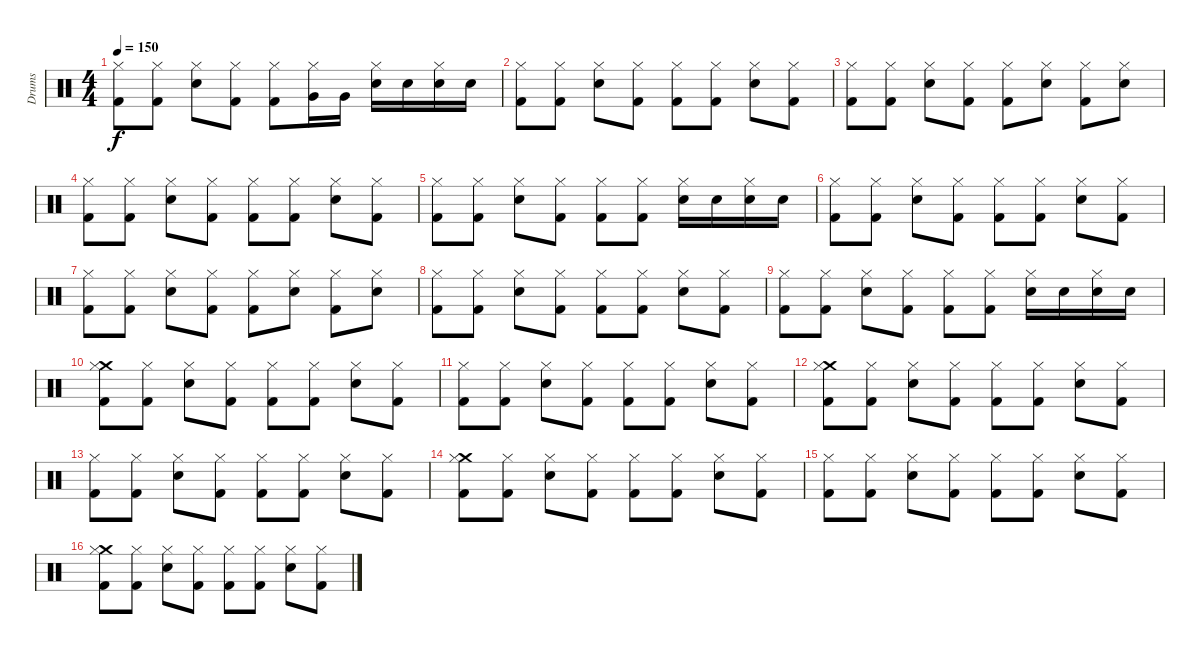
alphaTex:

\track ("Drums" "Drums") {instrument percussion}
\staff {score}
\articulation defaults
\ts (4 4)
\tempo 150
\clef neutral
\ks c
("Hi-Hat (closed)" "Kick (hit) 2").8{dy f} ("Hi-Hat (closed)" "Kick (hit) 2").8 ("Hi-Hat (closed)" "Snare (hit) 2").8 ("Hi-Hat (closed)" "Kick (hit) 2").8 ("Hi-Hat (closed)" "Kick (hit) 2").8 ("Hi-Hat (closed)" "Very Low Tom (hit)").16 "Very Low Tom (hit)".16 ("Snare (hit) 2" "Hi-Hat (closed)").16 "Snare (hit) 2".16 ("Snare (hit) 2" "Hi-Hat (closed)").16 "Snare (hit) 2".16 |
("Hi-Hat (closed)" "Kick (hit) 2").8 ("Hi-Hat (closed)" "Kick (hit) 2").8 ("Hi-Hat (closed)" "Snare (hit) 2").8 ("Hi-Hat (closed)" "Kick (hit) 2").8 ("Hi-Hat (closed)" "Kick (hit) 2").8 ("Kick (hit) 2" "Hi-Hat (closed)").8 ("Hi-Hat (closed)" "Snare (hit) 2").8 ("Hi-Hat (closed)" "Kick (hit) 2").8 |
("Hi-Hat (closed)" "Kick (hit) 2").8 ("Hi-Hat (closed)" "Kick (hit) 2").8 ("Hi-Hat (closed)" "Snare (hit) 2").8 ("Hi-Hat (closed)" "Kick (hit) 2").8 ("Kick (hit) 2" "Hi-Hat (closed)").8 ("Snare (hit) 2" "Hi-Hat (closed)").8 ("Kick (hit) 2" "Hi-Hat (closed)").8 ("Snare (hit) 2" "Hi-Hat (closed)").8 |
("Hi-Hat (closed)" "Kick (hit) 2").8 ("Hi-Hat (closed)" "Kick (hit) 2").8 ("Hi-Hat (closed)" "Snare (hit) 2").8 ("Hi-Hat (closed)" "Kick (hit) 2").8 ("Hi-Hat (closed)" "Kick (hit) 2").8 ("Hi-Hat (closed)" "Kick (hit) 2").8 ("Hi-Hat (closed)" "Snare (hit) 2").8 ("Hi-Hat (closed)" "Kick (hit) 2").8 |
("Kick (hit) 2" "Hi-Hat (closed)").8 ("Kick (hit) 2" "Hi-Hat (closed)").8 ("Snare (hit) 2" "Hi-Hat (closed)").8 ("Kick (hit) 2" "Hi-Hat (closed)").8 ("Kick (hit) 2" "Hi-Hat (closed)").8 ("Kick (hit) 2" "Hi-Hat (closed)").8 ("Snare (hit) 2" "Hi-Hat (closed)").16 "Snare (hit) 2".16 ("Snare (hit) 2" "Hi-Hat (closed)").16 "Snare (hit) 2".16 |
("Hi-Hat (closed)" "Kick (hit) 2").8 ("Hi-Hat (closed)" "Kick (hit) 2").8 ("Hi-Hat (closed)" "Snare (hit) 2").8 ("Hi-Hat (closed)" "Kick (hit) 2").8 ("Hi-Hat (closed)" "Kick (hit) 2").8 ("Hi-Hat (closed)" "Kick (hit) 2").8 ("Hi-Hat (closed)" "Snare (hit) 2").8 ("Hi-Hat (closed)" "Kick (hit) 2").8 |
("Kick (hit) 2" "Hi-Hat (closed)").8 ("Kick (hit) 2" "Hi-Hat (closed)").8 ("Snare (hit) 2" "Hi-Hat (closed)").8 ("Kick (hit) 2" "Hi-Hat (closed)").8 ("Kick (hit) 2" "Hi-Hat (closed)").8 ("Snare (hit) 2" "Hi-Hat (closed)").8 ("Kick (hit) 2" "Hi-Hat (closed)").8 ("Snare (hit) 2" "Hi-Hat (closed)").8 |
("Hi-Hat (closed)" "Kick (hit) 2").8 ("Hi-Hat (closed)" "Kick (hit) 2").8 ("Hi-Hat (closed)" "Snare (hit) 2").8 ("Hi-Hat (closed)" "Kick (hit) 2").8 ("Hi-Hat (closed)" "Kick (hit) 2").8 ("Hi-Hat (closed)" "Kick (hit) 2").8 ("Hi-Hat (closed)" "Snare (hit) 2").8 ("Hi-Hat (closed)" "Kick (hit) 2").8 |
("Hi-Hat (closed)" "Kick (hit) 2").8 ("Hi-Hat (closed)" "Kick (hit) 2").8 ("Hi-Hat (closed)" "Snare (hit) 2").8 ("Hi-Hat (closed)" "Kick (hit) 2").8 ("Hi-Hat (closed)" "Kick (hit) 2").8 ("Kick (hit) 2" "Hi-Hat (closed)").8 ("Snare (hit) 2" "Hi-Hat (closed)").16 "Snare (hit) 2".16 ("Snare (hit) 2" "Hi-Hat (closed)").16 "Snare (hit) 2".16 |
("Crash medium (hit)" "Hi-Hat (closed)" "Kick (hit) 2").8 ("Hi-Hat (closed)" "Kick (hit) 2").8 ("Hi-Hat (closed)" "Snare (hit) 2").8 ("Hi-Hat (closed)" "Kick (hit) 2").8 ("Hi-Hat (closed)" "Kick (hit) 2").8 ("Hi-Hat (closed)" "Kick (hit) 2").8 ("Hi-Hat (closed)" "Snare (hit) 2").8 ("Hi-Hat (closed)" "Kick (hit) 2").8 |
("Hi-Hat (closed)" "Kick (hit) 2").8 ("Hi-Hat (closed)" "Kick (hit) 2").8 ("Hi-Hat (closed)" "Snare (hit) 2").8 ("Hi-Hat (closed)" "Kick (hit) 2").8 ("Hi-Hat (closed)" "Kick (hit) 2").8 ("Hi-Hat (closed)" "Kick (hit) 2").8 ("Hi-Hat (closed)" "Snare (hit) 2").8 ("Hi-Hat (closed)" "Kick (hit) 2").8 |
("Crash medium (hit)" "Hi-Hat (closed)" "Kick (hit) 2").8 ("Hi-Hat (closed)" "Kick (hit) 2").8 ("Hi-Hat (closed)" "Snare (hit) 2").8 ("Hi-Hat (closed)" "Kick (hit) 2").8 ("Hi-Hat (closed)" "Kick (hit) 2").8 ("Hi-Hat (closed)" "Kick (hit) 2").8 ("Hi-Hat (closed)" "Snare (hit) 2").8 ("Hi-Hat (closed)" "Kick (hit) 2").8 |
("Hi-Hat (closed)" "Kick (hit) 2").8 ("Hi-Hat (closed)" "Kick (hit) 2").8 ("Hi-Hat (closed)" "Snare (hit) 2").8 ("Hi-Hat (closed)" "Kick (hit) 2").8 ("Hi-Hat (closed)" "Kick (hit) 2").8 ("Hi-Hat (closed)" "Kick (hit) 2").8 ("Hi-Hat (closed)" "Snare (hit) 2").8 ("Hi-Hat (closed)" "Kick (hit) 2").8 |
("Crash medium (hit)" "Hi-Hat (closed)" "Kick (hit) 2").8 ("Hi-Hat (closed)" "Kick (hit) 2").8 ("Hi-Hat (closed)" "Snare (hit) 2").8 ("Hi-Hat (closed)" "Kick (hit) 2").8 ("Hi-Hat (closed)" "Kick (hit) 2").8 ("Hi-Hat (closed)" "Kick (hit) 2").8 ("Hi-Hat (closed)" "Snare (hit) 2").8 ("Hi-Hat (closed)" "Kick (hit) 2").8 |
("Hi-Hat (closed)" "Kick (hit) 2").8 ("Hi-Hat (closed)" "Kick (hit) 2").8 ("Hi-Hat (closed)" "Snare (hit) 2").8 ("Hi-Hat (closed)" "Kick (hit) 2").8 ("Hi-Hat (closed)" "Kick (hit) 2").8 ("Hi-Hat (closed)" "Kick (hit) 2").8 ("Hi-Hat (closed)" "Snare (hit) 2").8 ("Hi-Hat (closed)" "Kick (hit) 2").8 |
("Crash medium (hit)" "Hi-Hat (closed)" "Kick (hit) 2").8 ("Hi-Hat (closed)" "Kick (hit) 2").8 ("Hi-Hat (closed)" "Snare (hit) 2").8 ("Hi-Hat (closed)" "Kick (hit) 2").8 ("Hi-Hat (closed)" "Kick (hit) 2").8 ("Hi-Hat (closed)" "Kick (hit) 2").8 ("Hi-Hat (closed)" "Snare (hit) 2").8 ("Hi-Hat (closed)" "Kick (hit) 2").8
